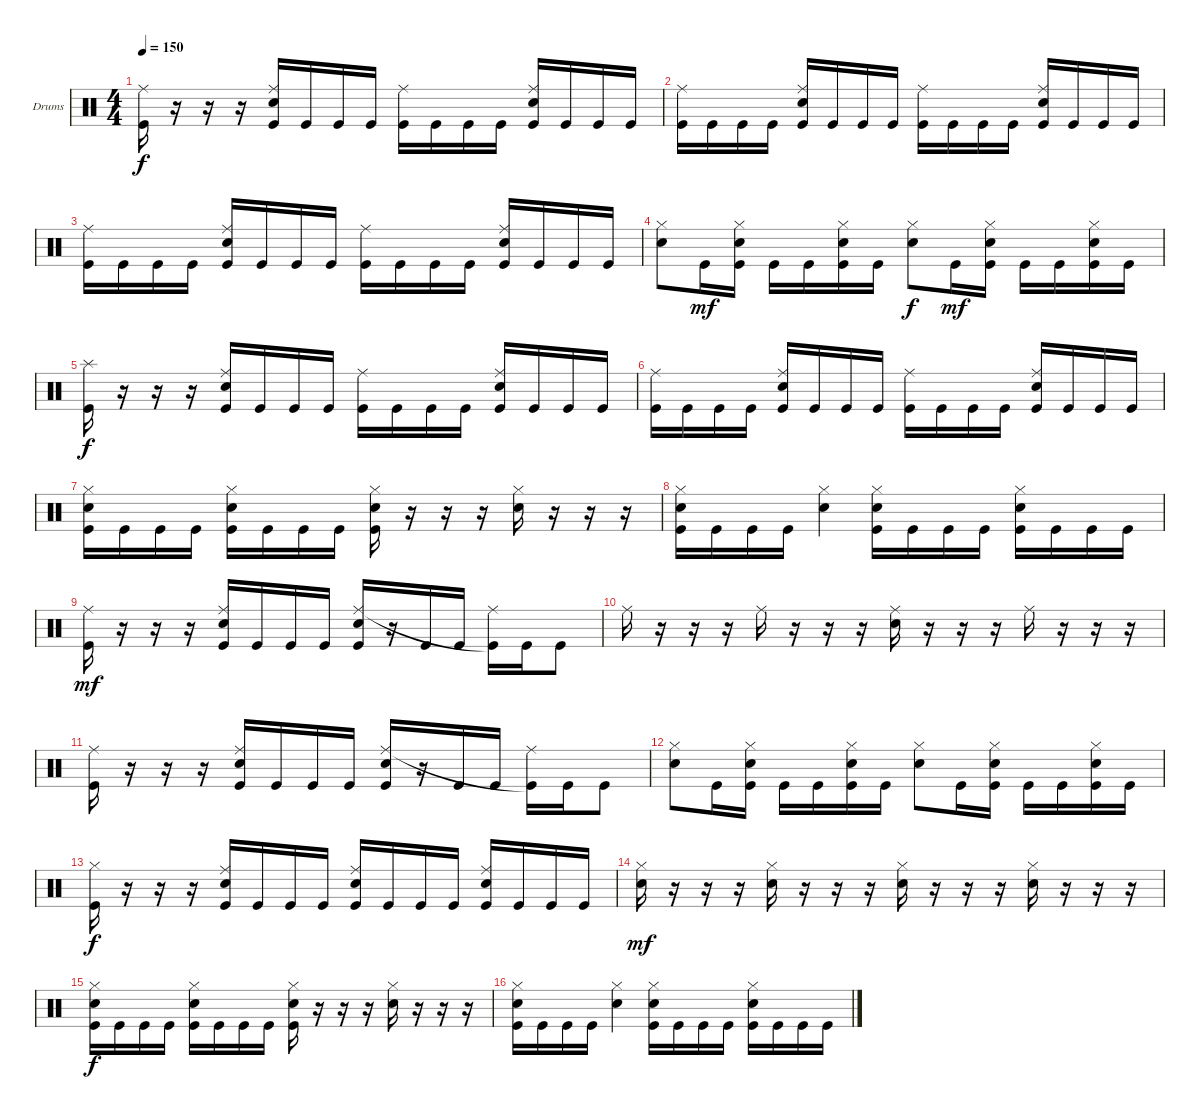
\defaultSystemsLayout 4
\bracketExtendMode groupsimilarinstruments
\firstSystemTrackNameOrientation horizontal
\otherSystemsTrackNameOrientation horizontal
\track ("Drumkit" "Drums") {instrument percussion}
\staff {score}
\articulation defaults
\ts (4 4)
\tempo 150
\clef neutral
\ks c
("Kick (hit)" "Ride (middle)").16{dy f} r.16 r.16 r.16 ("Snare (hit) 2" "Kick (hit)" "Ride (middle)").16 "Kick (hit)".16 "Kick (hit)".16 "Kick (hit)".16 ("Kick (hit)" "Ride (middle)").16 "Kick (hit)".16 "Kick (hit)".16 "Kick (hit)".16 ("Kick (hit)" "Snare (hit) 2" "Ride (middle)").16 "Kick (hit)".16 "Kick (hit)".16 "Kick (hit)".16 |
("Kick (hit)" "Ride (middle)").16 "Kick (hit)".16 "Kick (hit)".16 "Kick (hit)".16 ("Kick (hit)" "Snare (hit) 2" "Ride (middle)").16 "Kick (hit)".16 "Kick (hit)".16 "Kick (hit)".16 ("Kick (hit)" "Ride (middle)").16 "Kick (hit)".16 "Kick (hit)".16 "Kick (hit)".16 ("Kick (hit)" "Snare (hit) 2" "Ride (middle)").16 "Kick (hit)".16 "Kick (hit)".16 "Kick (hit)".16 |
("Kick (hit)" "Ride (middle)").16 "Kick (hit)".16 "Kick (hit)".16 "Kick (hit)".16 ("Snare (hit) 2" "Kick (hit)" "Ride (middle)").16 "Kick (hit)".16 "Kick (hit)".16 "Kick (hit)".16 ("Kick (hit)" "Ride (middle)").16 "Kick (hit)".16 "Kick (hit)".16 "Kick (hit)".16 ("Kick (hit)" "Snare (hit) 2" "Ride (middle)").16 "Kick (hit)".16 "Kick (hit)".16 "Kick (hit)".16 |
("Snare (hit) 2" "Hi-Hat (closed)").8 "Kick (hit)".16{dy mf} ("Kick (hit)" "Snare (hit) 2" "Hi-Hat (closed)").16 "Kick (hit)".16 "Kick (hit)".16 ("Kick (hit)" "Snare (hit) 2" "Hi-Hat (closed)").16 "Kick (hit)".16 ("Snare (hit) 2" "Hi-Hat (closed)").8{dy f} "Kick (hit)".16{dy mf} ("Kick (hit)" "Snare (hit) 2" "Hi-Hat (closed)").16 "Kick (hit)".16 "Kick (hit)".16 ("Kick (hit)" "Snare (hit) 2" "Hi-Hat (closed)").16 "Kick (hit)".16 |
("Kick (hit)" "Splash (hit)").16{dy f} r.16 r.16 r.16 ("Snare (hit) 2" "Kick (hit)" "Ride (middle)").16 "Kick (hit)".16 "Kick (hit)".16 "Kick (hit)".16 ("Kick (hit)" "Ride (middle)").16 "Kick (hit)".16 "Kick (hit)".16 "Kick (hit)".16 ("Kick (hit)" "Snare (hit) 2" "Ride (middle)").16 "Kick (hit)".16 "Kick (hit)".16 "Kick (hit)".16 |
("Kick (hit)" "Ride (middle)").16 "Kick (hit)".16 "Kick (hit)".16 "Kick (hit)".16 ("Kick (hit)" "Snare (hit) 2" "Ride (middle)").16 "Kick (hit)".16 "Kick (hit)".16 "Kick (hit)".16 ("Kick (hit)" "Ride (middle)").16 "Kick (hit)".16 "Kick (hit)".16 "Kick (hit)".16 ("Kick (hit)" "Snare (hit) 2" "Ride (middle)").16 "Kick (hit)".16 "Kick (hit)".16 "Kick (hit)".16 |
("Kick (hit)" "Snare (hit) 2" "Hi-Hat (closed)").16 "Kick (hit)".16 "Kick (hit)".16 "Kick (hit)".16 ("Kick (hit)" "Snare (hit) 2" "Hi-Hat (closed)").16 "Kick (hit)".16 "Kick (hit)".16 "Kick (hit)".16 ("Kick (hit)" "Snare (hit) 2" "Hi-Hat (closed)").16 r.16 r.16 r.16 ("Snare (hit) 2" "Hi-Hat (closed)").16 r.16 r.16 r.16 |
("Kick (hit)" "Snare (hit) 2" "Hi-Hat (closed)").16 "Kick (hit)".16 "Kick (hit)".16 "Kick (hit)".16 ("Snare (hit) 2" "Hi-Hat (closed)").4 ("Kick (hit)" "Snare (hit) 2" "Hi-Hat (closed)").16 "Kick (hit)".16 "Kick (hit)".16 "Kick (hit)".16 ("Kick (hit)" "Snare (hit) 2" "Hi-Hat (closed)").16 "Kick (hit)".16 "Kick (hit)".16 "Kick (hit)".16 |
("Kick (hit)" "Ride (middle)").16{dy mf} r.16 r.16 r.16 ("Snare (hit) 2" "Kick (hit)" "Ride (middle)").16 "Kick (hit)".16 "Kick (hit)".16 "Kick (hit)".16 ("Kick (hit)" "Ride (middle)" "Snare (hit) 2").16 r.16 "Kick (hit)".16 "Kick (hit)".16 ("Ride (middle)" "Kick (hit)"{t}).16 "Kick (hit)".16 "Kick (hit)".8 |
"Ride (middle)".16 r.16 r.16 r.16 "Ride (middle)".16 r.16 r.16 r.16 ("Ride (middle)" "Snare (hit) 2").16 r.16 r.16 r.16 "Ride (middle)".16 r.16 r.16 r.16 |
("Kick (hit)" "Ride (middle)").16 r.16 r.16 r.16 ("Snare (hit) 2" "Kick (hit)" "Ride (middle)").16 "Kick (hit)".16 "Kick (hit)".16 "Kick (hit)".16 ("Kick (hit)" "Ride (middle)" "Snare (hit) 2").16 r.16 "Kick (hit)".16 "Kick (hit)".16 ("Ride (middle)" "Kick (hit)"{t}).16 "Kick (hit)".16 "Kick (hit)".8 |
("Snare (hit) 2" "Hi-Hat (closed)").8 "Kick (hit)".16 ("Kick (hit)" "Snare (hit) 2" "Hi-Hat (closed)").16 "Kick (hit)".16 "Kick (hit)".16 ("Kick (hit)" "Snare (hit) 2" "Hi-Hat (closed)").16 "Kick (hit)".16 ("Snare (hit) 2" "Hi-Hat (closed)").8 "Kick (hit)".16 ("Kick (hit)" "Snare (hit) 2" "Hi-Hat (closed)").16 "Kick (hit)".16 "Kick (hit)".16 ("Kick (hit)" "Snare (hit) 2" "Hi-Hat (closed)").16 "Kick (hit)".16 |
("Kick (hit)" "Hi-Hat (closed)").16{dy f} r.16 r.16 r.16 ("Snare (hit) 2" "Kick (hit)" "Ride (middle)").16 "Kick (hit)".16 "Kick (hit)".16 "Kick (hit)".16 ("Kick (hit)" "Snare (hit) 2" "Ride (middle)").16 "Kick (hit)".16 "Kick (hit)".16 "Kick (hit)".16 ("Kick (hit)" "Snare (hit) 2" "Ride (middle)").16 "Kick (hit)".16 "Kick (hit)".16 "Kick (hit)".16 |
("Snare (hit) 2" "Hi-Hat (closed)").16{dy mf} r.16 r.16 r.16 ("Snare (hit) 2" "Hi-Hat (closed)").16 r.16 r.16 r.16 ("Snare (hit) 2" "Hi-Hat (closed)").16 r.16 r.16 r.16 ("Snare (hit) 2" "Hi-Hat (closed)").16 r.16 r.16 r.16 |
("Kick (hit)" "Snare (hit) 2" "Hi-Hat (closed)").16{dy f} "Kick (hit)".16 "Kick (hit)".16 "Kick (hit)".16 ("Kick (hit)" "Snare (hit) 2" "Hi-Hat (closed)").16 "Kick (hit)".16 "Kick (hit)".16 "Kick (hit)".16 ("Kick (hit)" "Snare (hit) 2" "Hi-Hat (closed)").16 r.16 r.16 r.16 ("Snare (hit) 2" "Hi-Hat (closed)").16 r.16 r.16 r.16 |
("Kick (hit)" "Snare (hit) 2" "Hi-Hat (closed)").16 "Kick (hit)".16 "Kick (hit)".16 "Kick (hit)".16 ("Snare (hit) 2" "Hi-Hat (closed)").4 ("Kick (hit)" "Snare (hit) 2" "Hi-Hat (closed)").16 "Kick (hit)".16 "Kick (hit)".16 "Kick (hit)".16 ("Kick (hit)" "Snare (hit) 2" "Hi-Hat (closed)").16 "Kick (hit)".16 "Kick (hit)".16 "Kick (hit)".16
